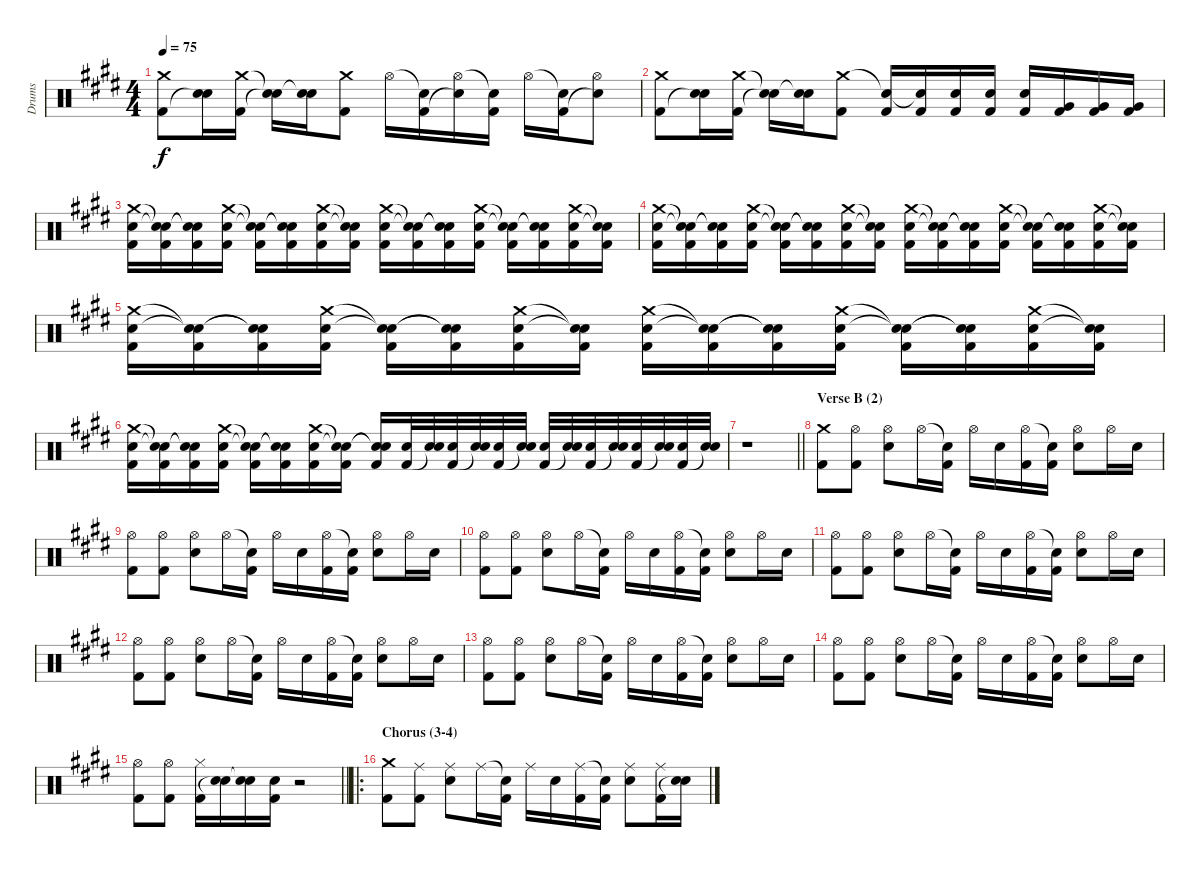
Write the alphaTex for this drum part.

\track ("Drums" "Drums") {instrument percussion}
\staff {score}
\articulation defaults
\ts (4 4)
\tempo 75
\clef neutral
\ks c#minor
("Crash medium (hit)" "Kick (hit) 2").8{dy f} ("Electric Snare (hit)" "Snare (hit)"{t}).16 ("Crash medium (hit)" "Kick (hit) 2").16 ("Snare (hit)"{t} "Snare (hit)"{t}).16 ("Electric Snare (hit)" "Snare (hit)"{t}).16 ("Crash medium (hit)" "Kick (hit) 2").8 "Hi-Hat (open)".16 ("Snare (hit)"{t} "Kick (hit) 2").16 ("Hi-Hat (open)" "Snare (hit)"{t}).16 ("Snare (hit)"{t} "Kick (hit) 2").16 "Hi-Hat (open)".16 ("Snare (hit)"{t} "Kick (hit) 2").16 ("Hi-Hat (open)" "Snare (hit)"{t}).8 |
("Crash medium (hit)" "Kick (hit) 2").8 ("Electric Snare (hit)" "Snare (hit)"{t}).16 ("Crash medium (hit)" "Kick (hit) 2").16 ("Snare (hit)"{t} "Snare (hit)"{t}).16 ("Electric Snare (hit)" "Snare (hit)"{t}).16 ("Crash medium (hit)" "Kick (hit) 2").8 ("Snare (hit)"{t} "Kick (hit) 2").16 ("Snare (hit)"{t} "Kick (hit) 2").16 ("Electric Snare (hit)" "Kick (hit) 2").16 ("Electric Snare (hit)" "Kick (hit) 2").16 ("Electric Snare (hit)" "Kick (hit) 2").16 ("Very Low Tom (hit)" "Kick (hit) 2").16 ("Very Low Tom (hit)" "Kick (hit) 2").16 ("Very Low Tom (hit)" "Kick (hit) 2").16 |
("Crash medium (hit)" "Electric Snare (hit)" "Kick (hit) 2").16 ("Snare (hit)"{t} "Snare (hit)"{t} "Kick (hit) 2").16 ("Snare (hit)"{t} "Snare (hit)"{t} "Kick (hit) 2").16 ("Crash medium (hit)" "Electric Snare (hit)" "Kick (hit) 2").16 ("Snare (hit)"{t} "Snare (hit)"{t} "Kick (hit) 2").16 ("Snare (hit)"{t} "Snare (hit)"{t} "Kick (hit) 2").16 ("Crash medium (hit)" "Electric Snare (hit)" "Kick (hit) 2").16 ("Snare (hit)"{t} "Snare (hit)"{t} "Kick (hit) 2").16 ("Crash medium (hit)" "Electric Snare (hit)" "Kick (hit) 2").16 ("Snare (hit)"{t} "Snare (hit)"{t} "Kick (hit) 2").16 ("Snare (hit)"{t} "Snare (hit)"{t} "Kick (hit) 2").16 ("Crash medium (hit)" "Electric Snare (hit)" "Kick (hit) 2").16 ("Snare (hit)"{t} "Snare (hit)"{t} "Kick (hit) 2").16 ("Snare (hit)"{t} "Snare (hit)"{t} "Kick (hit) 2").16 ("Crash medium (hit)" "Electric Snare (hit)" "Kick (hit) 2").16 ("Snare (hit)"{t} "Snare (hit)"{t} "Kick (hit) 2").16 |
("Crash medium (hit)" "Electric Snare (hit)" "Kick (hit) 2").16 ("Snare (hit)"{t} "Snare (hit)"{t} "Kick (hit) 2").16 ("Snare (hit)"{t} "Snare (hit)"{t} "Kick (hit) 2").16 ("Crash medium (hit)" "Electric Snare (hit)" "Kick (hit) 2").16 ("Snare (hit)"{t} "Snare (hit)"{t} "Kick (hit) 2").16 ("Snare (hit)"{t} "Snare (hit)"{t} "Kick (hit) 2").16 ("Crash medium (hit)" "Electric Snare (hit)" "Kick (hit) 2").16 ("Snare (hit)"{t} "Snare (hit)"{t} "Kick (hit) 2").16 ("Crash medium (hit)" "Electric Snare (hit)" "Kick (hit) 2").16 ("Snare (hit)"{t} "Snare (hit)"{t} "Kick (hit) 2").16 ("Snare (hit)"{t} "Snare (hit)"{t} "Kick (hit) 2").16 ("Crash medium (hit)" "Electric Snare (hit)" "Kick (hit) 2").16 ("Snare (hit)"{t} "Snare (hit)"{t} "Kick (hit) 2").16 ("Snare (hit)"{t} "Snare (hit)"{t} "Kick (hit) 2").16 ("Crash medium (hit)" "Electric Snare (hit)" "Kick (hit) 2").16 ("Snare (hit)"{t} "Snare (hit)"{t} "Kick (hit) 2").16 |
("Crash medium (hit)" "Electric Snare (hit)" "Kick (hit) 2").16 ("Snare (hit)"{t} "Snare (hit)"{t} "Kick (hit) 2").16 ("Snare (hit)"{t} "Snare (hit)"{t} "Kick (hit) 2").16 ("Crash medium (hit)" "Electric Snare (hit)" "Kick (hit) 2").16 ("Snare (hit)"{t} "Snare (hit)"{t} "Kick (hit) 2").16 ("Snare (hit)"{t} "Snare (hit)"{t} "Kick (hit) 2").16 ("Crash medium (hit)" "Electric Snare (hit)" "Kick (hit) 2").16 ("Snare (hit)"{t} "Snare (hit)"{t} "Kick (hit) 2").16 ("Crash medium (hit)" "Electric Snare (hit)" "Kick (hit) 2").16 ("Snare (hit)"{t} "Snare (hit)"{t} "Kick (hit) 2").16 ("Snare (hit)"{t} "Snare (hit)"{t} "Kick (hit) 2").16 ("Crash medium (hit)" "Electric Snare (hit)" "Kick (hit) 2").16 ("Snare (hit)"{t} "Snare (hit)"{t} "Kick (hit) 2").16 ("Snare (hit)"{t} "Snare (hit)"{t} "Kick (hit) 2").16 ("Crash medium (hit)" "Electric Snare (hit)" "Kick (hit) 2").16 ("Snare (hit)"{t} "Snare (hit)"{t} "Kick (hit) 2").16 |
("Crash medium (hit)" "Electric Snare (hit)" "Kick (hit) 2").16 ("Snare (hit)"{t} "Snare (hit)"{t} "Kick (hit) 2").16 ("Snare (hit)"{t} "Snare (hit)"{t} "Kick (hit) 2").16 ("Crash medium (hit)" "Electric Snare (hit)" "Kick (hit) 2").16 ("Snare (hit)"{t} "Snare (hit)"{t} "Kick (hit) 2").16 ("Snare (hit)"{t} "Snare (hit)"{t} "Kick (hit) 2").16 ("Crash medium (hit)" "Electric Snare (hit)" "Kick (hit) 2").16 ("Snare (hit)"{t} "Snare (hit)"{t} "Kick (hit) 2").16 ("Snare (hit)"{t} "Snare (hit)"{t} "Kick (hit) 2").16 ("Electric Snare (hit)" "Kick (hit) 2").32 ("Electric Snare (hit)" "Snare (hit)"{t}).32 ("Electric Snare (hit)" "Kick (hit) 2").32 ("Electric Snare (hit)" "Snare (hit)"{t}).32 ("Electric Snare (hit)" "Kick (hit) 2").32 ("Electric Snare (hit)" "Snare (hit)"{t}).32 ("Electric Snare (hit)" "Kick (hit) 2").32 ("Electric Snare (hit)" "Snare (hit)"{t}).32 ("Electric Snare (hit)" "Kick (hit) 2").32 ("Electric Snare (hit)" "Snare (hit)"{t}).32 ("Electric Snare (hit)" "Kick (hit) 2").32 ("Electric Snare (hit)" "Snare (hit)"{t}).32 ("Electric Snare (hit)" "Kick (hit) 2").32 ("Electric Snare (hit)" "Snare (hit)"{t}).32 |
\barLineRight lightlight
r.1 |
\section ("" "Verse B (2)")
("Crash medium (hit)" "Kick (hit) 2").8 ("Hi-Hat (open)" "Kick (hit) 2").8 ("Hi-Hat (open)" "Electric Snare (hit)").8 "Hi-Hat (open)".16 ("Snare (hit)"{t} "Kick (hit) 2").16 "Hi-Hat (open)".16 "Electric Snare (hit)".16 ("Hi-Hat (open)" "Kick (hit) 2").16 ("Snare (hit)"{t} "Kick (hit) 2").16 ("Hi-Hat (open)" "Electric Snare (hit)").8 "Hi-Hat (open)".16 "Electric Snare (hit)".16 |
("Hi-Hat (open)" "Kick (hit) 2").8 ("Hi-Hat (open)" "Kick (hit) 2").8 ("Hi-Hat (open)" "Electric Snare (hit)").8 "Hi-Hat (open)".16 ("Snare (hit)"{t} "Kick (hit) 2").16 "Hi-Hat (open)".16 "Electric Snare (hit)".16 ("Hi-Hat (open)" "Kick (hit) 2").16 ("Snare (hit)"{t} "Kick (hit) 2").16 ("Hi-Hat (open)" "Electric Snare (hit)").8 "Hi-Hat (open)".16 "Electric Snare (hit)".16 |
("Hi-Hat (open)" "Kick (hit) 2").8 ("Hi-Hat (open)" "Kick (hit) 2").8 ("Hi-Hat (open)" "Electric Snare (hit)").8 "Hi-Hat (open)".16 ("Snare (hit)"{t} "Kick (hit) 2").16 "Hi-Hat (open)".16 "Electric Snare (hit)".16 ("Hi-Hat (open)" "Kick (hit) 2").16 ("Snare (hit)"{t} "Kick (hit) 2").16 ("Hi-Hat (open)" "Electric Snare (hit)").8 "Hi-Hat (open)".16 "Electric Snare (hit)".16 |
("Hi-Hat (open)" "Kick (hit) 2").8 ("Hi-Hat (open)" "Kick (hit) 2").8 ("Hi-Hat (open)" "Electric Snare (hit)").8 "Hi-Hat (open)".16 ("Snare (hit)"{t} "Kick (hit) 2").16 "Hi-Hat (open)".16 "Electric Snare (hit)".16 ("Hi-Hat (open)" "Kick (hit) 2").16 ("Snare (hit)"{t} "Kick (hit) 2").16 ("Hi-Hat (open)" "Electric Snare (hit)").8 "Hi-Hat (open)".16 "Electric Snare (hit)".16 |
("Hi-Hat (open)" "Kick (hit) 2").8 ("Hi-Hat (open)" "Kick (hit) 2").8 ("Hi-Hat (open)" "Electric Snare (hit)").8 "Hi-Hat (open)".16 ("Snare (hit)"{t} "Kick (hit) 2").16 "Hi-Hat (open)".16 "Electric Snare (hit)".16 ("Hi-Hat (open)" "Kick (hit) 2").16 ("Snare (hit)"{t} "Kick (hit) 2").16 ("Hi-Hat (open)" "Electric Snare (hit)").8 "Hi-Hat (open)".16 "Electric Snare (hit)".16 |
("Hi-Hat (open)" "Kick (hit) 2").8 ("Hi-Hat (open)" "Kick (hit) 2").8 ("Hi-Hat (open)" "Electric Snare (hit)").8 "Hi-Hat (open)".16 ("Snare (hit)"{t} "Kick (hit) 2").16 "Hi-Hat (open)".16 "Electric Snare (hit)".16 ("Hi-Hat (open)" "Kick (hit) 2").16 ("Snare (hit)"{t} "Kick (hit) 2").16 ("Hi-Hat (open)" "Electric Snare (hit)").8 "Hi-Hat (open)".16 "Electric Snare (hit)".16 |
("Hi-Hat (open)" "Kick (hit) 2").8 ("Hi-Hat (open)" "Kick (hit) 2").8 ("Hi-Hat (open)" "Electric Snare (hit)").8 "Hi-Hat (open)".16 ("Snare (hit)"{t} "Kick (hit) 2").16 "Hi-Hat (open)".16 "Electric Snare (hit)".16 ("Hi-Hat (open)" "Kick (hit) 2").16 ("Snare (hit)"{t} "Kick (hit) 2").16 ("Hi-Hat (open)" "Electric Snare (hit)").8 "Hi-Hat (open)".16 "Electric Snare (hit)".16 |
\barLineRight lightlight
("Hi-Hat (open)" "Kick (hit) 2").8 ("Hi-Hat (open)" "Kick (hit) 2").8 ("Hi-Hat (closed)" "Kick (hit) 2").16 ("Electric Snare (hit)" "Snare (hit)"{t}).16 ("Electric Snare (hit)" "Snare (hit)"{t}).16 ("Electric Snare (hit)" "Kick (hit) 2").16 r.2 |
\ro
\section ("" "Chorus (3-4)")
("Crash medium (hit)" "Kick (hit) 2").8 ("Ride (middle)" "Kick (hit) 2").8 ("Ride (middle)" "Electric Snare (hit)").8 "Ride (middle)".16 ("Snare (hit)"{t} "Kick (hit) 2").16 "Ride (middle)".16 "Electric Snare (hit)".16 ("Ride (middle)" "Kick (hit) 2").16 ("Snare (hit)"{t} "Kick (hit) 2").16 ("Ride (middle)" "Electric Snare (hit)").8 ("Ride (middle)" "Kick (hit) 2").16 ("Electric Snare (hit)" "Snare (hit)"{t}).16
